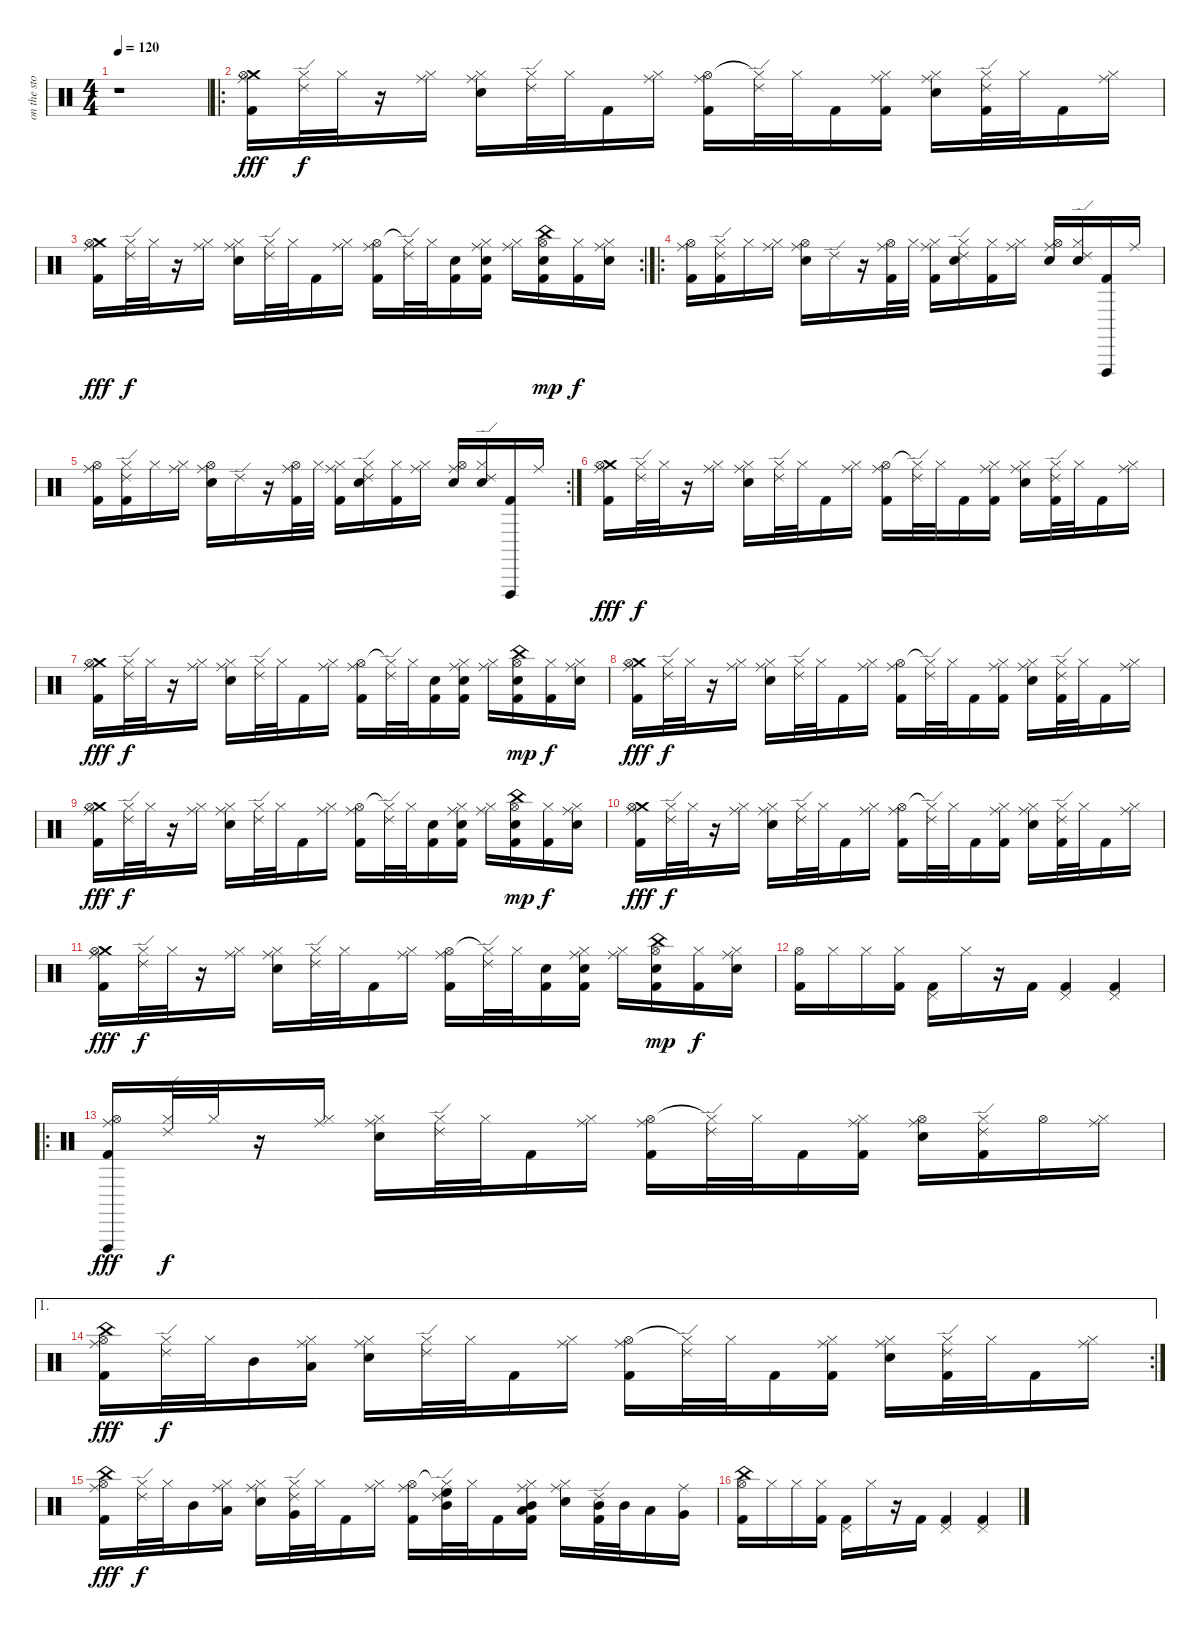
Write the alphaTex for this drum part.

\track ("on the storm" "on the sto") {instrument percussion}
\staff {score}
\articulation defaults
\ts (4 4)
\tempo 120
\clef neutral
\ks c
r.1{dy fff} |
\ro
("Ride (middle)" "Crash medium (hit)" "Hi-Hat (open)" "Kick (hit) 2").16 ("Ride (edge) 2" "Hi-Hat (closed)").32{dy f} "Hi-Hat (closed)".32 r.16 ("Ride (middle)" "Hi-Hat (closed)").16 ("Ride (middle)" "Hi-Hat (closed)" "Electric Snare (hit)").16 ("Ride (edge) 2" "Hi-Hat (closed)").32 "Hi-Hat (closed)".32 "Kick (hit) 2".16 ("Ride (middle)" "Hi-Hat (closed)").16 ("Ride (middle)" "Hi-Hat (open)" "Kick (hit) 2").16 ("Ride (edge) 2" "Hi-Hat (closed)"{t}).32 "Hi-Hat (closed)".32 "Kick (hit) 2".16 ("Ride (middle)" "Hi-Hat (closed)" "Kick (hit) 2").16 ("Ride (middle)" "Hi-Hat (closed)" "Electric Snare (hit)").16 ("Ride (edge) 2" "Hi-Hat (closed)" "Kick (hit) 2").32 "Hi-Hat (closed)".32 "Kick (hit) 2".16 ("Ride (middle)" "Hi-Hat (closed)").16 |
\rc 2
("Ride (middle)" "Crash medium (hit)" "Hi-Hat (open)" "Kick (hit) 2").16{dy fff} ("Ride (edge) 2" "Hi-Hat (closed)").32{dy f} "Hi-Hat (closed)".32 r.16 ("Ride (middle)" "Hi-Hat (closed)").16 ("Ride (middle)" "Hi-Hat (closed)" "Electric Snare (hit)").16 ("Ride (edge) 2" "Hi-Hat (closed)").32 "Hi-Hat (closed)".32 "Kick (hit) 2".16 ("Ride (middle)" "Hi-Hat (closed)").16 ("Ride (middle)" "Hi-Hat (open)" "Kick (hit) 2").16 ("Ride (edge) 2" "Hi-Hat (closed)"{t}).32 "Hi-Hat (closed)".32 ("Electric Snare (hit)" "Kick (hit) 2").16 ("Ride (middle)" "Hi-Hat (closed)" "Electric Snare (hit)" "Kick (hit) 2").16 ("Ride (middle)" "Hi-Hat (closed)").16 ("China (hit)" "Hi-Hat (open)" "Electric Snare (hit)" "Kick (hit) 2").16{dy mp} ("Hi-Hat (closed)" "Kick (hit) 2").16{dy f} ("Ride (middle)" "Hi-Hat (closed)" "Electric Snare (hit)").16 |
\ro
("Ride (middle)" "Hi-Hat (open)" "Kick (hit) 2").16 ("Ride (edge) 2" "Hi-Hat (closed)" "Kick (hit) 2").16 "Hi-Hat (closed)".16 ("Ride (middle)" "Hi-Hat (closed)").16 ("Ride (middle)" "Hi-Hat (open)" "Electric Snare (hit)").16 "Ride (edge) 2".16 r.16 ("Ride (middle)" "Hi-Hat (open)" "Kick (hit) 2").32 "Hi-Hat (closed)".32 ("Ride (middle)" "Hi-Hat (closed)" "Kick (hit) 2").16 ("Ride (edge) 2" "Hi-Hat (closed)" "Electric Snare (hit)").16 ("Hi-Hat (closed)" "Kick (hit) 2").16 ("Ride (middle)" "Hi-Hat (closed)").16 ("Ride (middle)" "Hi-Hat (open)" "Electric Snare (hit)").16 ("Ride (edge) 2" "Hi-Hat (closed)" "Electric Snare (hit)").16 ("Vibraslap (hit)" "Kick (hit) 2").16 "Ride (middle)".16 |
\rc 2
("Ride (middle)" "Hi-Hat (open)" "Kick (hit) 2").16 ("Ride (edge) 2" "Hi-Hat (closed)" "Kick (hit) 2").16 "Hi-Hat (closed)".16 ("Ride (middle)" "Hi-Hat (closed)").16 ("Ride (middle)" "Hi-Hat (open)" "Electric Snare (hit)").16 "Ride (edge) 2".16 r.16 ("Ride (middle)" "Hi-Hat (open)" "Kick (hit) 2").32 "Hi-Hat (closed)".32 ("Ride (middle)" "Hi-Hat (closed)" "Kick (hit) 2").16 ("Ride (edge) 2" "Hi-Hat (closed)" "Electric Snare (hit)").16 ("Hi-Hat (closed)" "Kick (hit) 2").16 ("Ride (middle)" "Hi-Hat (closed)").16 ("Ride (middle)" "Hi-Hat (open)" "Electric Snare (hit)").16 ("Ride (edge) 2" "Hi-Hat (closed)" "Electric Snare (hit)").16 ("Vibraslap (hit)" "Kick (hit) 2").16 "Ride (middle)".16 |
("Ride (middle)" "Crash medium (hit)" "Hi-Hat (open)" "Kick (hit) 2").16{dy fff} ("Ride (edge) 2" "Hi-Hat (closed)").32{dy f} "Hi-Hat (closed)".32 r.16 ("Ride (middle)" "Hi-Hat (closed)").16 ("Ride (middle)" "Hi-Hat (closed)" "Electric Snare (hit)").16 ("Ride (edge) 2" "Hi-Hat (closed)").32 "Hi-Hat (closed)".32 "Kick (hit) 2".16 ("Ride (middle)" "Hi-Hat (closed)").16 ("Ride (middle)" "Hi-Hat (open)" "Kick (hit) 2").16 ("Ride (edge) 2" "Hi-Hat (closed)"{t}).32 "Hi-Hat (closed)".32 "Kick (hit) 2".16 ("Ride (middle)" "Hi-Hat (closed)" "Kick (hit) 2").16 ("Ride (middle)" "Hi-Hat (closed)" "Electric Snare (hit)").16 ("Ride (edge) 2" "Hi-Hat (closed)" "Kick (hit) 2").32 "Hi-Hat (closed)".32 "Kick (hit) 2".16 ("Ride (middle)" "Hi-Hat (closed)").16 |
("Ride (middle)" "Crash medium (hit)" "Hi-Hat (open)" "Kick (hit) 2").16{dy fff} ("Ride (edge) 2" "Hi-Hat (closed)").32{dy f} "Hi-Hat (closed)".32 r.16 ("Ride (middle)" "Hi-Hat (closed)").16 ("Ride (middle)" "Hi-Hat (closed)" "Electric Snare (hit)").16 ("Ride (edge) 2" "Hi-Hat (closed)").32 "Hi-Hat (closed)".32 "Kick (hit) 2".16 ("Ride (middle)" "Hi-Hat (closed)").16 ("Ride (middle)" "Hi-Hat (open)" "Kick (hit) 2").16 ("Ride (edge) 2" "Hi-Hat (closed)"{t}).32 "Hi-Hat (closed)".32 ("Electric Snare (hit)" "Kick (hit) 2").16 ("Ride (middle)" "Hi-Hat (closed)" "Electric Snare (hit)" "Kick (hit) 2").16 ("Ride (middle)" "Hi-Hat (closed)").16 ("China (hit)" "Hi-Hat (open)" "Electric Snare (hit)" "Kick (hit) 2").16{dy mp} ("Hi-Hat (closed)" "Kick (hit) 2").16{dy f} ("Ride (middle)" "Hi-Hat (closed)" "Electric Snare (hit)").16 |
("Ride (middle)" "Crash medium (hit)" "Hi-Hat (open)" "Kick (hit) 2").16{dy fff} ("Ride (edge) 2" "Hi-Hat (closed)").32{dy f} "Hi-Hat (closed)".32 r.16 ("Ride (middle)" "Hi-Hat (closed)").16 ("Ride (middle)" "Hi-Hat (closed)" "Electric Snare (hit)").16 ("Ride (edge) 2" "Hi-Hat (closed)").32 "Hi-Hat (closed)".32 "Kick (hit) 2".16 ("Ride (middle)" "Hi-Hat (closed)").16 ("Ride (middle)" "Hi-Hat (open)" "Kick (hit) 2").16 ("Ride (edge) 2" "Hi-Hat (closed)"{t}).32 "Hi-Hat (closed)".32 "Kick (hit) 2".16 ("Ride (middle)" "Hi-Hat (closed)" "Kick (hit) 2").16 ("Ride (middle)" "Hi-Hat (closed)" "Electric Snare (hit)").16 ("Ride (edge) 2" "Hi-Hat (closed)" "Kick (hit) 2").32 "Hi-Hat (closed)".32 "Kick (hit) 2".16 ("Ride (middle)" "Hi-Hat (closed)").16 |
("Ride (middle)" "Crash medium (hit)" "Hi-Hat (open)" "Kick (hit) 2").16{dy fff} ("Ride (edge) 2" "Hi-Hat (closed)").32{dy f} "Hi-Hat (closed)".32 r.16 ("Ride (middle)" "Hi-Hat (closed)").16 ("Ride (middle)" "Hi-Hat (closed)" "Electric Snare (hit)").16 ("Ride (edge) 2" "Hi-Hat (closed)").32 "Hi-Hat (closed)".32 "Kick (hit) 2".16 ("Ride (middle)" "Hi-Hat (closed)").16 ("Ride (middle)" "Hi-Hat (open)" "Kick (hit) 2").16 ("Ride (edge) 2" "Hi-Hat (closed)"{t}).32 "Hi-Hat (closed)".32 ("Electric Snare (hit)" "Kick (hit) 2").16 ("Ride (middle)" "Hi-Hat (closed)" "Electric Snare (hit)" "Kick (hit) 2").16 ("Ride (middle)" "Hi-Hat (closed)").16 ("China (hit)" "Hi-Hat (open)" "Electric Snare (hit)" "Kick (hit) 2").16{dy mp} ("Hi-Hat (closed)" "Kick (hit) 2").16{dy f} ("Ride (middle)" "Hi-Hat (closed)" "Electric Snare (hit)").16 |
("Ride (middle)" "Crash medium (hit)" "Hi-Hat (open)" "Kick (hit) 2").16{dy fff} ("Ride (edge) 2" "Hi-Hat (closed)").32{dy f} "Hi-Hat (closed)".32 r.16 ("Ride (middle)" "Hi-Hat (closed)").16 ("Ride (middle)" "Hi-Hat (closed)" "Electric Snare (hit)").16 ("Ride (edge) 2" "Hi-Hat (closed)").32 "Hi-Hat (closed)".32 "Kick (hit) 2".16 ("Ride (middle)" "Hi-Hat (closed)").16 ("Ride (middle)" "Hi-Hat (open)" "Kick (hit) 2").16 ("Ride (edge) 2" "Hi-Hat (closed)"{t}).32 "Hi-Hat (closed)".32 "Kick (hit) 2".16 ("Ride (middle)" "Hi-Hat (closed)" "Kick (hit) 2").16 ("Ride (middle)" "Hi-Hat (closed)" "Electric Snare (hit)").16 ("Ride (edge) 2" "Hi-Hat (closed)" "Kick (hit) 2").32 "Hi-Hat (closed)".32 "Kick (hit) 2".16 ("Ride (middle)" "Hi-Hat (closed)").16 |
("Ride (middle)" "Crash medium (hit)" "Hi-Hat (open)" "Kick (hit) 2").16{dy fff} ("Ride (edge) 2" "Hi-Hat (closed)").32{dy f} "Hi-Hat (closed)".32 r.16 ("Ride (middle)" "Hi-Hat (closed)").16 ("Ride (middle)" "Hi-Hat (closed)" "Electric Snare (hit)").16 ("Ride (edge) 2" "Hi-Hat (closed)").32 "Hi-Hat (closed)".32 "Kick (hit) 2".16 ("Ride (middle)" "Hi-Hat (closed)").16 ("Ride (middle)" "Hi-Hat (open)" "Kick (hit) 2").16 ("Ride (edge) 2" "Hi-Hat (closed)"{t}).32 "Hi-Hat (closed)".32 ("Electric Snare (hit)" "Kick (hit) 2").16 ("Ride (middle)" "Hi-Hat (closed)" "Electric Snare (hit)" "Kick (hit) 2").16 ("Ride (middle)" "Hi-Hat (closed)").16 ("China (hit)" "Hi-Hat (open)" "Electric Snare (hit)" "Kick (hit) 2").16{dy mp} ("Hi-Hat (closed)" "Kick (hit) 2").16{dy f} ("Ride (middle)" "Hi-Hat (closed)" "Electric Snare (hit)").16 |
("Hi-Hat (open)" "Kick (hit) 2").16 "Hi-Hat (closed)".16 "Hi-Hat (closed)".16 ("Hi-Hat (closed)" "Kick (hit) 2").16 ("Pedal Hi-Hat (hit)" "Kick (hit) 2").16 "Hi-Hat (closed)".16 r.16 "Kick (hit) 2".16 ("Pedal Hi-Hat (hit)" "Kick (hit) 2").4 ("Pedal Hi-Hat (hit)" "Kick (hit) 2").4 |
\ro
("Ride (middle)" "Vibraslap (hit)" "Hi-Hat (open)" "Kick (hit) 2").16{dy fff} ("Ride (edge) 2" "Hi-Hat (closed)").32{dy f} "Hi-Hat (closed)".32 r.16 ("Ride (middle)" "Hi-Hat (closed)").16 ("Ride (middle)" "Hi-Hat (closed)" "Electric Snare (hit)").16 ("Ride (edge) 2" "Hi-Hat (closed)").32 "Hi-Hat (closed)".32 "Kick (hit) 2".16 ("Ride (middle)" "Hi-Hat (closed)").16 ("Ride (middle)" "Hi-Hat (open)" "Kick (hit) 2").16 ("Ride (edge) 2" "Hi-Hat (closed)"{t}).32 "Hi-Hat (closed)".32 "Kick (hit) 2".16 ("Ride (middle)" "Hi-Hat (closed)" "Kick (hit) 2").16 ("Ride (middle)" "Hi-Hat (open)" "Electric Snare (hit)").16 ("Ride (edge) 2" "Hi-Hat (closed)" "Kick (hit) 2").16 "Hi-Hat (open)".16 ("Ride (middle)" "Hi-Hat (closed)").16 |
\ae 1
\rc 2
("Ride (middle)" "China (hit)" "Hi-Hat (open)" "Kick (hit) 2").16{dy fff} ("Ride (edge) 2" "Hi-Hat (closed)").32{dy f} "Hi-Hat (closed)".32 "Mid Tom (hit)".16 ("Ride (middle)" "Hi-Hat (closed)" "Low Tom (hit)").16 ("Ride (middle)" "Hi-Hat (closed)" "Electric Snare (hit)").16 ("Ride (edge) 2" "Hi-Hat (closed)").32 "Hi-Hat (closed)".32 "Kick (hit) 2".16 ("Ride (middle)" "Hi-Hat (closed)").16 ("Ride (middle)" "Hi-Hat (open)" "Kick (hit) 2").16 ("Ride (edge) 2" "Hi-Hat (closed)"{t}).32 "Hi-Hat (closed)".32 "Kick (hit) 2".16 ("Ride (middle)" "Hi-Hat (closed)" "Kick (hit) 2").16 ("Ride (middle)" "Hi-Hat (closed)" "Electric Snare (hit)").16 ("Ride (edge) 2" "Hi-Hat (closed)" "Kick (hit) 2").32 "Hi-Hat (closed)".32 "Kick (hit) 2".16 ("Ride (middle)" "Hi-Hat (closed)").16 |
("Ride (middle)" "China (hit)" "Hi-Hat (open)" "Kick (hit) 2").16{dy fff} ("Ride (edge) 2" "Hi-Hat (closed)").32{dy f} "Hi-Hat (closed)".32 "Mid Tom (hit)".16 ("Ride (middle)" "Hi-Hat (closed)" "Low Tom (hit)").16 ("Ride (middle)" "Hi-Hat (closed)" "Electric Snare (hit)").16 ("Ride (edge) 2" "Hi-Hat (closed)" "Very Low Tom (hit)").32 "Hi-Hat (closed)".32 "Kick (hit) 2".16 ("Ride (middle)" "Hi-Hat (closed)").16 ("Ride (middle)" "Hi-Hat (open)" "Kick (hit) 2").16 ("Ride (edge) 2" "Hi-Hat (closed)"{t} "High Floor Tom (hit)" "Mid Tom (hit)").32 "Hi-Hat (closed)".32 "Kick (hit) 2".16 ("Ride (middle)" "Hi-Hat (closed)" "Mid Tom (hit)" "Low Tom (hit)" "Kick (hit) 2").16 ("Ride (middle)" "Hi-Hat (closed)" "Electric Snare (hit)").16 ("Ride (edge) 2" "Mid Tom (hit)" "Kick (hit) 2").32 "Mid Tom (hit)".32 "Low Tom (hit)".16 ("Ride (middle)" "Very Low Tom (hit)").16 |
("China (hit)" "Hi-Hat (open)" "Kick (hit) 2").16 "Hi-Hat (closed)".16 "Hi-Hat (closed)".16 ("Hi-Hat (closed)" "Kick (hit) 2").16 ("Pedal Hi-Hat (hit)" "Kick (hit) 2").16 "Hi-Hat (closed)".16 r.16 "Kick (hit) 2".16 ("Pedal Hi-Hat (hit)" "Kick (hit) 2").4 ("Pedal Hi-Hat (hit)" "Kick (hit) 2").4
